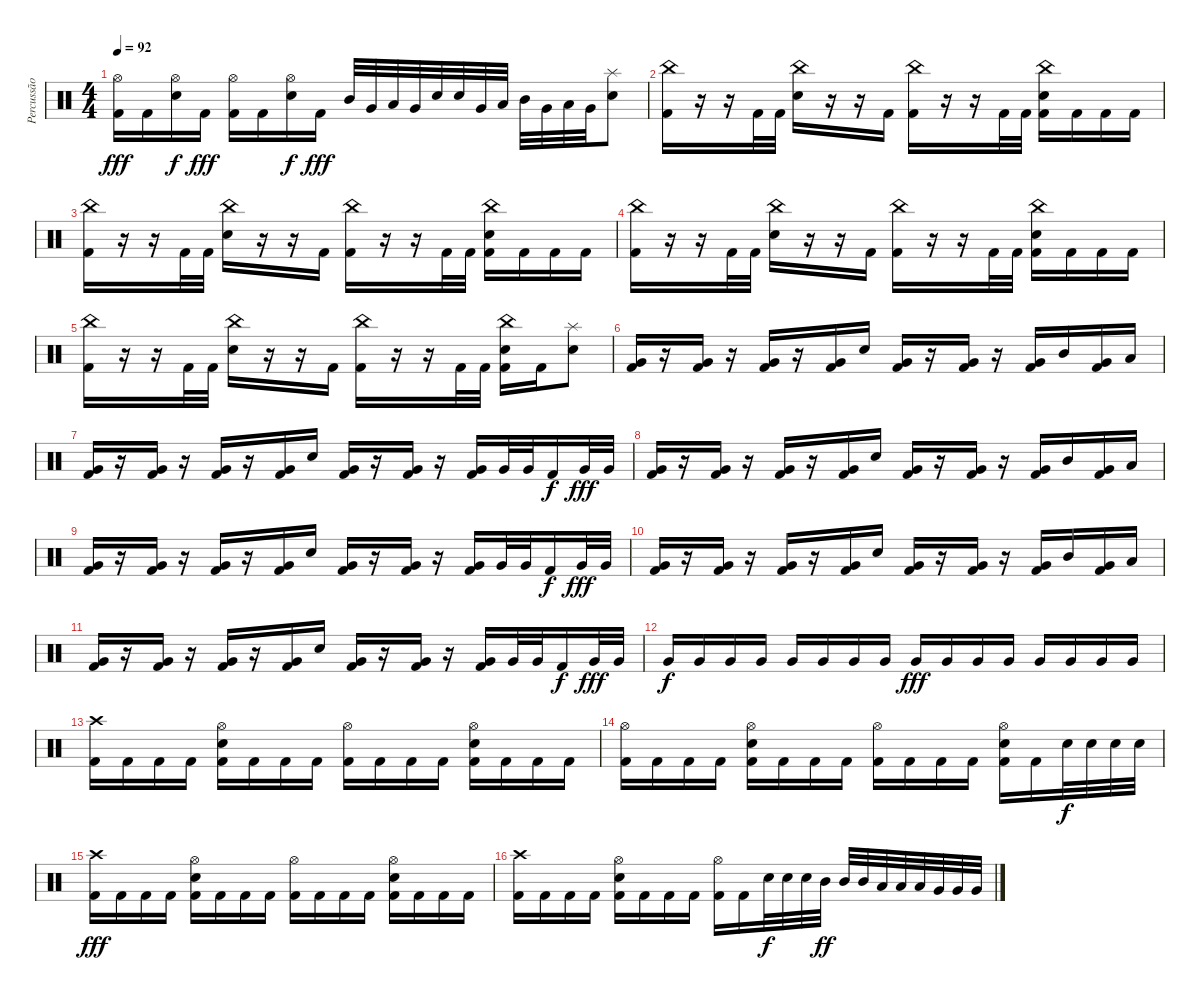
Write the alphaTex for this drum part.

\track ("Percussão" "Percussão") {instrument percussion}
\staff {score}
\articulation defaults
\ts (4 4)
\tempo 92
\clef neutral
\ks c
("Hi-Hat (open)" "Kick (hit) 2").16{dy fff} "Kick (hit) 2".16 ("Hi-Hat (open)" "Electric Snare (hit)").16{dy f} "Kick (hit) 2".16{dy fff} ("Hi-Hat (open)" "Kick (hit) 2").16 "Kick (hit) 2".16 ("Hi-Hat (open)" "Electric Snare (hit)").16{dy f} "Kick (hit) 2".16{dy fff} "Mid Tom (hit)".32 "Very Low Tom (hit)".32 "Low Tom (hit)".32 "Very Low Tom (hit)".32 "Electric Snare (hit)".32 "Electric Snare (hit)".32 "Very Low Tom (hit)".32 "Low Tom (hit)".32 "Mid Tom (hit)".32 "Very Low Tom (hit)".32 "Low Tom (hit)".32 "Very Low Tom (hit)".32 ("Splash (hit)" "Electric Snare (hit)").8 |
("China (hit)" "Kick (hit) 2").16 r.16 r.16 "Kick (hit) 2".32 "Kick (hit) 2".32 ("China (hit)" "Electric Snare (hit)").16 r.16 r.16 "Kick (hit) 2".16 ("China (hit)" "Kick (hit) 2").16 r.16 r.16 "Kick (hit) 2".32 "Kick (hit) 2".32 ("China (hit)" "Electric Snare (hit)" "Kick (hit) 2").16 "Kick (hit) 2".16 "Kick (hit) 2".16 "Kick (hit) 2".16 |
("China (hit)" "Kick (hit) 2").16 r.16 r.16 "Kick (hit) 2".32 "Kick (hit) 2".32 ("China (hit)" "Electric Snare (hit)").16 r.16 r.16 "Kick (hit) 2".16 ("China (hit)" "Kick (hit) 2").16 r.16 r.16 "Kick (hit) 2".32 "Kick (hit) 2".32 ("China (hit)" "Electric Snare (hit)" "Kick (hit) 2").16 "Kick (hit) 2".16 "Kick (hit) 2".16 "Kick (hit) 2".16 |
("China (hit)" "Kick (hit) 2").16 r.16 r.16 "Kick (hit) 2".32 "Kick (hit) 2".32 ("China (hit)" "Electric Snare (hit)").16 r.16 r.16 "Kick (hit) 2".16 ("China (hit)" "Kick (hit) 2").16 r.16 r.16 "Kick (hit) 2".32 "Kick (hit) 2".32 ("China (hit)" "Electric Snare (hit)" "Kick (hit) 2").16 "Kick (hit) 2".16 "Kick (hit) 2".16 "Kick (hit) 2".16 |
("China (hit)" "Kick (hit) 2").16 r.16 r.16 "Kick (hit) 2".32 "Kick (hit) 2".32 ("China (hit)" "Electric Snare (hit)").16 r.16 r.16 "Kick (hit) 2".16 ("China (hit)" "Kick (hit) 2").16 r.16 r.16 "Kick (hit) 2".32 "Kick (hit) 2".32 ("China (hit)" "Electric Snare (hit)" "Kick (hit) 2").16 "Kick (hit) 2".16 ("Splash (hit)" "Electric Snare (hit)").8 |
("Very Low Tom (hit)" "Kick (hit) 2").16{volume 16} r.16 ("Very Low Tom (hit)" "Kick (hit) 2").16 r.16 ("Very Low Tom (hit)" "Kick (hit) 2").16 r.16 ("Very Low Tom (hit)" "Kick (hit) 2").16 "Electric Snare (hit)".16 ("Very Low Tom (hit)" "Kick (hit) 2").16 r.16 ("Very Low Tom (hit)" "Kick (hit) 2").16 r.16 ("Very Low Tom (hit)" "Kick (hit) 2").16 "Mid Tom (hit)".16 ("Very Low Tom (hit)" "Kick (hit) 2").16 "Low Tom (hit)".16 |
("Very Low Tom (hit)" "Kick (hit) 2").16 r.16 ("Very Low Tom (hit)" "Kick (hit) 2").16 r.16 ("Very Low Tom (hit)" "Kick (hit) 2").16 r.16 ("Very Low Tom (hit)" "Kick (hit) 2").16 "Electric Snare (hit)".16 ("Very Low Tom (hit)" "Kick (hit) 2").16 r.16 ("Very Low Tom (hit)" "Kick (hit) 2").16 r.16 ("Very Low Tom (hit)" "Kick (hit) 2").16 "Very Low Tom (hit)".32 "Very Low Tom (hit)".32 "Kick (hit) 2".16{dy f} "Very Low Tom (hit)".32{dy fff} "Very Low Tom (hit)".32 |
("Very Low Tom (hit)" "Kick (hit) 2").16 r.16 ("Very Low Tom (hit)" "Kick (hit) 2").16 r.16 ("Very Low Tom (hit)" "Kick (hit) 2").16 r.16 ("Very Low Tom (hit)" "Kick (hit) 2").16 "Electric Snare (hit)".16 ("Very Low Tom (hit)" "Kick (hit) 2").16 r.16 ("Very Low Tom (hit)" "Kick (hit) 2").16 r.16 ("Very Low Tom (hit)" "Kick (hit) 2").16 "Mid Tom (hit)".16 ("Very Low Tom (hit)" "Kick (hit) 2").16 "Low Tom (hit)".16 |
("Very Low Tom (hit)" "Kick (hit) 2").16 r.16 ("Very Low Tom (hit)" "Kick (hit) 2").16 r.16 ("Very Low Tom (hit)" "Kick (hit) 2").16 r.16 ("Very Low Tom (hit)" "Kick (hit) 2").16 "Electric Snare (hit)".16 ("Very Low Tom (hit)" "Kick (hit) 2").16 r.16 ("Very Low Tom (hit)" "Kick (hit) 2").16 r.16 ("Very Low Tom (hit)" "Kick (hit) 2").16 "Very Low Tom (hit)".32 "Very Low Tom (hit)".32 "Kick (hit) 2".16{dy f} "Very Low Tom (hit)".32{dy fff} "Very Low Tom (hit)".32 |
("Very Low Tom (hit)" "Kick (hit) 2").16 r.16 ("Very Low Tom (hit)" "Kick (hit) 2").16 r.16 ("Very Low Tom (hit)" "Kick (hit) 2").16 r.16 ("Very Low Tom (hit)" "Kick (hit) 2").16 "Electric Snare (hit)".16 ("Very Low Tom (hit)" "Kick (hit) 2").16 r.16 ("Very Low Tom (hit)" "Kick (hit) 2").16 r.16 ("Very Low Tom (hit)" "Kick (hit) 2").16 "Mid Tom (hit)".16 ("Very Low Tom (hit)" "Kick (hit) 2").16 "Low Tom (hit)".16 |
("Very Low Tom (hit)" "Kick (hit) 2").16 r.16 ("Very Low Tom (hit)" "Kick (hit) 2").16 r.16 ("Very Low Tom (hit)" "Kick (hit) 2").16 r.16 ("Very Low Tom (hit)" "Kick (hit) 2").16 "Electric Snare (hit)".16 ("Very Low Tom (hit)" "Kick (hit) 2").16 r.16 ("Very Low Tom (hit)" "Kick (hit) 2").16 r.16 ("Very Low Tom (hit)" "Kick (hit) 2").16 "Very Low Tom (hit)".32 "Very Low Tom (hit)".32 "Kick (hit) 2".16{dy f} "Very Low Tom (hit)".32{dy fff} "Very Low Tom (hit)".32 |
"Very Low Tom (hit)".16{dy f} "Very Low Tom (hit)".16 "Very Low Tom (hit)".16 "Very Low Tom (hit)".16 "Very Low Tom (hit)".16 "Very Low Tom (hit)".16 "Very Low Tom (hit)".16 "Very Low Tom (hit)".16 "Very Low Tom (hit)".16{dy fff} "Very Low Tom (hit)".16 "Very Low Tom (hit)".16 "Very Low Tom (hit)".16 "Very Low Tom (hit)".16 "Very Low Tom (hit)".16 "Very Low Tom (hit)".16 "Very Low Tom (hit)".16 |
("Crash high (hit)" "Kick (hit) 2").16 "Kick (hit) 2".16 "Kick (hit) 2".16 "Kick (hit) 2".16 ("Hi-Hat (open)" "Electric Snare (hit)" "Kick (hit) 2").16 "Kick (hit) 2".16 "Kick (hit) 2".16 "Kick (hit) 2".16 ("Hi-Hat (open)" "Kick (hit) 2").16 "Kick (hit) 2".16 "Kick (hit) 2".16 "Kick (hit) 2".16 ("Hi-Hat (open)" "Electric Snare (hit)" "Kick (hit) 2").16 "Kick (hit) 2".16 "Kick (hit) 2".16 "Kick (hit) 2".16 |
("Hi-Hat (open)" "Kick (hit) 2").16 "Kick (hit) 2".16 "Kick (hit) 2".16 "Kick (hit) 2".16 ("Hi-Hat (open)" "Electric Snare (hit)" "Kick (hit) 2").16 "Kick (hit) 2".16 "Kick (hit) 2".16 "Kick (hit) 2".16 ("Hi-Hat (open)" "Kick (hit) 2").16 "Kick (hit) 2".16 "Kick (hit) 2".16 "Kick (hit) 2".16 ("Hi-Hat (open)" "Electric Snare (hit)" "Kick (hit) 2").16 "Kick (hit) 2".16 "Electric Snare (hit)".32{dy f} "Electric Snare (hit)".32 "Electric Snare (hit)".32 "Electric Snare (hit)".32 |
("Crash high (hit)" "Kick (hit) 2").16{dy fff} "Kick (hit) 2".16 "Kick (hit) 2".16 "Kick (hit) 2".16 ("Hi-Hat (open)" "Electric Snare (hit)" "Kick (hit) 2").16 "Kick (hit) 2".16 "Kick (hit) 2".16 "Kick (hit) 2".16 ("Hi-Hat (open)" "Kick (hit) 2").16 "Kick (hit) 2".16 "Kick (hit) 2".16 "Kick (hit) 2".16 ("Hi-Hat (open)" "Electric Snare (hit)" "Kick (hit) 2").16 "Kick (hit) 2".16 "Kick (hit) 2".16 "Kick (hit) 2".16 |
("Crash high (hit)" "Kick (hit) 2").16 "Kick (hit) 2".16 "Kick (hit) 2".16 "Kick (hit) 2".16 ("Hi-Hat (open)" "Electric Snare (hit)" "Kick (hit) 2").16 "Kick (hit) 2".16 "Kick (hit) 2".16 "Kick (hit) 2".16 ("Hi-Hat (open)" "Kick (hit) 2").16 "Kick (hit) 2".16 "Electric Snare (hit)".32{dy f} "Electric Snare (hit)".32 "Electric Snare (hit)".32 "Mid Tom (hit)".32{dy ff volume 16} "Mid Tom (hit)".32 "Mid Tom (hit)".32 "Low Tom (hit)".32 "Low Tom (hit)".32 "Low Tom (hit)".32 "Very Low Tom (hit)".32 "Very Low Tom (hit)".32 "Very Low Tom (hit)".32
